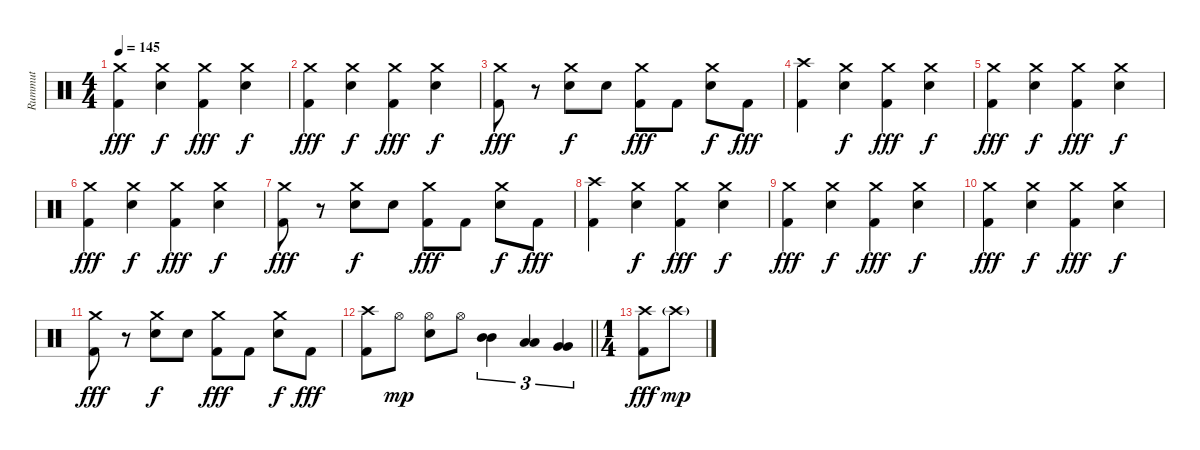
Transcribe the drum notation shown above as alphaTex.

\track ("Rummut" "Rummut") {instrument percussion}
\staff {score}
\articulation defaults
\ts (4 4)
\tempo 145
\clef neutral
\ks c
("Crash medium (hit)" "Kick (hit) 2").4{dy fff} ("Crash medium (hit)" "Snare (hit) 2").4{dy f} ("Crash medium (hit)" "Kick (hit) 2").4{dy fff} ("Crash medium (hit)" "Snare (hit) 2").4{dy f} |
("Crash medium (hit)" "Kick (hit) 2").4{dy fff} ("Crash medium (hit)" "Snare (hit) 2").4{dy f} ("Crash medium (hit)" "Kick (hit) 2").4{dy fff} ("Crash medium (hit)" "Snare (hit) 2").4{dy f} |
("Crash medium (hit)" "Kick (hit) 2").8{dy fff} r.8 ("Crash medium (hit)" "Snare (hit) 2").8{dy f} "Snare (hit) 2".8 ("Crash medium (hit)" "Kick (hit) 2").8{dy fff} "Kick (hit) 2".8 ("Crash medium (hit)" "Snare (hit) 2").8{dy f} "Kick (hit) 2".8{dy fff} |
("Crash high (hit)" "Kick (hit) 2").4 ("Crash medium (hit)" "Snare (hit) 2").4{dy f} ("Crash medium (hit)" "Kick (hit) 2").4{dy fff} ("Crash medium (hit)" "Snare (hit) 2").4{dy f} |
("Crash medium (hit)" "Kick (hit) 2").4{dy fff} ("Crash medium (hit)" "Snare (hit) 2").4{dy f} ("Crash medium (hit)" "Kick (hit) 2").4{dy fff} ("Crash medium (hit)" "Snare (hit) 2").4{dy f} |
("Crash medium (hit)" "Kick (hit) 2").4{dy fff} ("Crash medium (hit)" "Snare (hit) 2").4{dy f} ("Crash medium (hit)" "Kick (hit) 2").4{dy fff} ("Crash medium (hit)" "Snare (hit) 2").4{dy f} |
("Crash medium (hit)" "Kick (hit) 2").8{dy fff} r.8 ("Crash medium (hit)" "Snare (hit) 2").8{dy f} "Snare (hit) 2".8 ("Crash medium (hit)" "Kick (hit) 2").8{dy fff} "Kick (hit) 2".8 ("Crash medium (hit)" "Snare (hit) 2").8{dy f} "Kick (hit) 2".8{dy fff} |
("Crash high (hit)" "Kick (hit) 2").4 ("Crash medium (hit)" "Snare (hit) 2").4{dy f} ("Crash medium (hit)" "Kick (hit) 2").4{dy fff} ("Crash medium (hit)" "Snare (hit) 2").4{dy f} |
("Crash medium (hit)" "Kick (hit) 2").4{dy fff} ("Crash medium (hit)" "Snare (hit) 2").4{dy f} ("Crash medium (hit)" "Kick (hit) 2").4{dy fff} ("Crash medium (hit)" "Snare (hit) 2").4{dy f} |
("Crash medium (hit)" "Kick (hit) 2").4{dy fff} ("Crash medium (hit)" "Snare (hit) 2").4{dy f} ("Crash medium (hit)" "Kick (hit) 2").4{dy fff} ("Crash medium (hit)" "Snare (hit) 2").4{dy f} |
("Crash medium (hit)" "Kick (hit) 2").8{dy fff} r.8 ("Crash medium (hit)" "Snare (hit) 2").8{dy f} "Snare (hit) 2".8 ("Crash medium (hit)" "Kick (hit) 2").8{dy fff} "Kick (hit) 2".8 ("Crash medium (hit)" "Snare (hit) 2").8{dy f} "Kick (hit) 2".8{dy fff} |
\barLineRight lightlight
("Crash high (hit)" "Kick (hit) 2").8 "Hi-Hat (open)".8{dy mp} ("Hi-Hat (open)" "Snare (hit) 2").8 "Hi-Hat (open)".8 ("Mid Tom (hit)" "Mid Tom (hit)").4{tu (3 2)} ("Low Tom (hit)" "Low Tom (hit)").4{tu (3 2)} ("Very Low Tom (hit)" "Very Low Tom (hit)").4{tu (3 2)} |
\ts (1 4)
("Crash high (hit)" "Kick (hit) 2").8{dy fff} "Crash high (hit)"{g}.8{dy mp}
